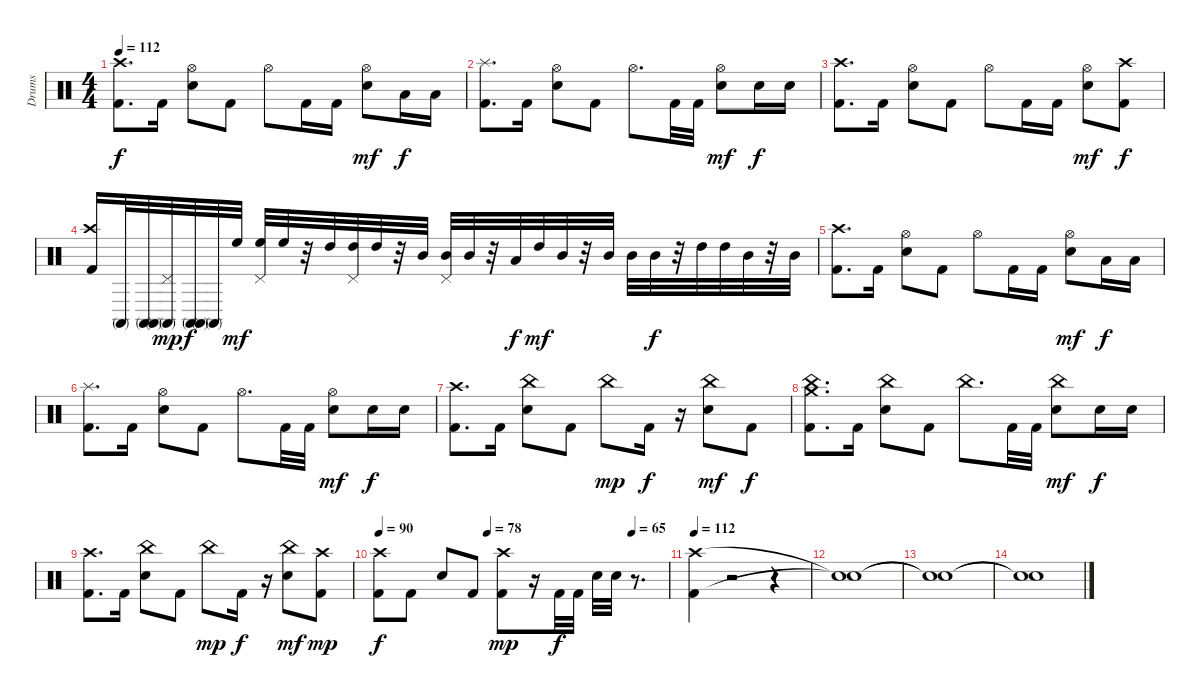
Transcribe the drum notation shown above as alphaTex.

\track ("Drums" "Drums") {instrument percussion}
\staff {score}
\articulation defaults
\ts (4 4)
\tempo 112
\clef neutral
\ks c
("Kick (hit) 2" "Crash high (hit)").8{d dy f} "Kick (hit) 2".16 ("Electric Snare (hit)" "Hi-Hat (open)").8 "Kick (hit) 2".8 "Hi-Hat (open)".8 "Kick (hit) 2".16 "Kick (hit) 2".16 ("Electric Snare (hit)" "Hi-Hat (open)").8{dy mf} "Low Tom (hit)".16{dy f} "Low Tom (hit)".16 |
("Kick (hit) 2" "Splash (hit)").8{d} "Kick (hit) 2".16 ("Electric Snare (hit)" "Hi-Hat (open)").8 "Kick (hit) 2".8 "Hi-Hat (open)".8{d} "Kick (hit) 2".32 "Kick (hit) 2".32 ("Hi-Hat (open)" "Electric Snare (hit)").8{dy mf} "Electric Snare (hit)".16{dy f} "Electric Snare (hit)".16 |
("Crash high (hit)" "Kick (hit) 2").8{d} "Kick (hit) 2".16 ("Electric Snare (hit)" "Hi-Hat (open)").8 "Kick (hit) 2".8 "Hi-Hat (open)".8 "Kick (hit) 2".16 "Kick (hit) 2".16 ("Hi-Hat (open)" "Electric Snare (hit)").8{dy mf} ("Kick (hit) 2" "Crash high (hit)").8{dy f} |
("Crash high (hit)" "Kick (hit) 2").16 "Conga high (mute)".32 ("Conga high (mute)" "Conga high (mute)").32 ("Pedal Hi-Hat (hit)" "Conga high (mute)").32{dy mp} ("Conga high (mute)" "Conga high (mute)").32{dy f} "Conga high (mute)".32 "High Floor Tom (hit)".32{dy mf} ("Pedal Hi-Hat (hit)" "High Floor Tom (hit)").32 "High Floor Tom (hit)".32 r.32 "High Tom (hit)".32 ("Pedal Hi-Hat (hit)" "High Tom (hit)").32 "High Tom (hit)".32 r.32 "Mid Tom (hit)".32 ("Pedal Hi-Hat (hit)" "Mid Tom (hit)").32 "Mid Tom (hit)".32 r.32 "Low Tom (hit)".32{dy f} "High Tom (hit)".32{dy mf} "Mid Tom (hit)".32 r.32 "Mid Tom (hit)".32 "Mid Tom (hit)".32 "Mid Tom (hit)".32{dy f} r.32 "High Tom (hit)".32 "High Tom (hit)".32 "Mid Tom (hit)".32 r.32 "Mid Tom (hit)".32 |
("Crash high (hit)" "Kick (hit) 2").8{d} "Kick (hit) 2".16 ("Electric Snare (hit)" "Hi-Hat (open)").8 "Kick (hit) 2".8 "Hi-Hat (open)".8 "Kick (hit) 2".16 "Kick (hit) 2".16 ("Electric Snare (hit)" "Hi-Hat (open)").8{dy mf} "Low Tom (hit)".16{dy f} "Low Tom (hit)".16 |
("Kick (hit) 2" "Splash (hit)").8{d} "Kick (hit) 2".16 ("Electric Snare (hit)" "Hi-Hat (open)").8 "Kick (hit) 2".8 "Hi-Hat (open)".8{d} "Kick (hit) 2".32 "Kick (hit) 2".32 ("Hi-Hat (open)" "Electric Snare (hit)").8{dy mf} "Electric Snare (hit)".16{dy f} "Electric Snare (hit)".16 |
("Kick (hit) 2" "Crash high (hit)").8{d} "Kick (hit) 2".16 ("Electric Snare (hit)" "China (hit)").8 "Kick (hit) 2".8 "China (hit)".8{dy mp} "Kick (hit) 2".16{dy f} r.16 ("Electric Snare (hit)" "China (hit)").8{dy mf} "Kick (hit) 2".8{dy f} |
("Kick (hit) 2" "Crash medium (hit)" "China (hit)").8{d} "Kick (hit) 2".16 ("Electric Snare (hit)" "China (hit)").8 "Kick (hit) 2".8 "China (hit)".8{d} "Kick (hit) 2".32 "Kick (hit) 2".32 ("Electric Snare (hit)" "China (hit)").8{dy mf} "Electric Snare (hit)".16{dy f} "Electric Snare (hit)".16 |
("Crash high (hit)" "Kick (hit) 2").8{d} "Kick (hit) 2".16 ("Electric Snare (hit)" "China (hit)").8 "Kick (hit) 2".8 "China (hit)".8{dy mp} "Kick (hit) 2".16{dy f} r.16 ("Electric Snare (hit)" "China (hit)").8{dy mf} ("Kick (hit) 2" "Crash high (hit)").8{dy mp} |
\tempo 90
\tempo (78 0.375)
\tempo (65 0.875)
("Crash high (hit)" "Kick (hit) 2").8{dy f} "Kick (hit) 2".8 "Electric Snare (hit)".8 "Kick (hit) 2".8 ("Kick (hit) 2" "Crash high (hit)").8{dy mp} r.16 "Kick (hit) 2".32{dy f} "Kick (hit) 2".32 "Electric Snare (hit)".32 "Electric Snare (hit)".32 r.8{d} |
\tempo 112
("Kick (hit) 2" "Crash high (hit)").4 r.2 r.4 |
("Snare (hit)"{t} "Snare (hit)"{t}).1 |
("Snare (hit)"{t} "Snare (hit)"{t}).1 |
("Snare (hit)"{t} "Snare (hit)"{t}).1
